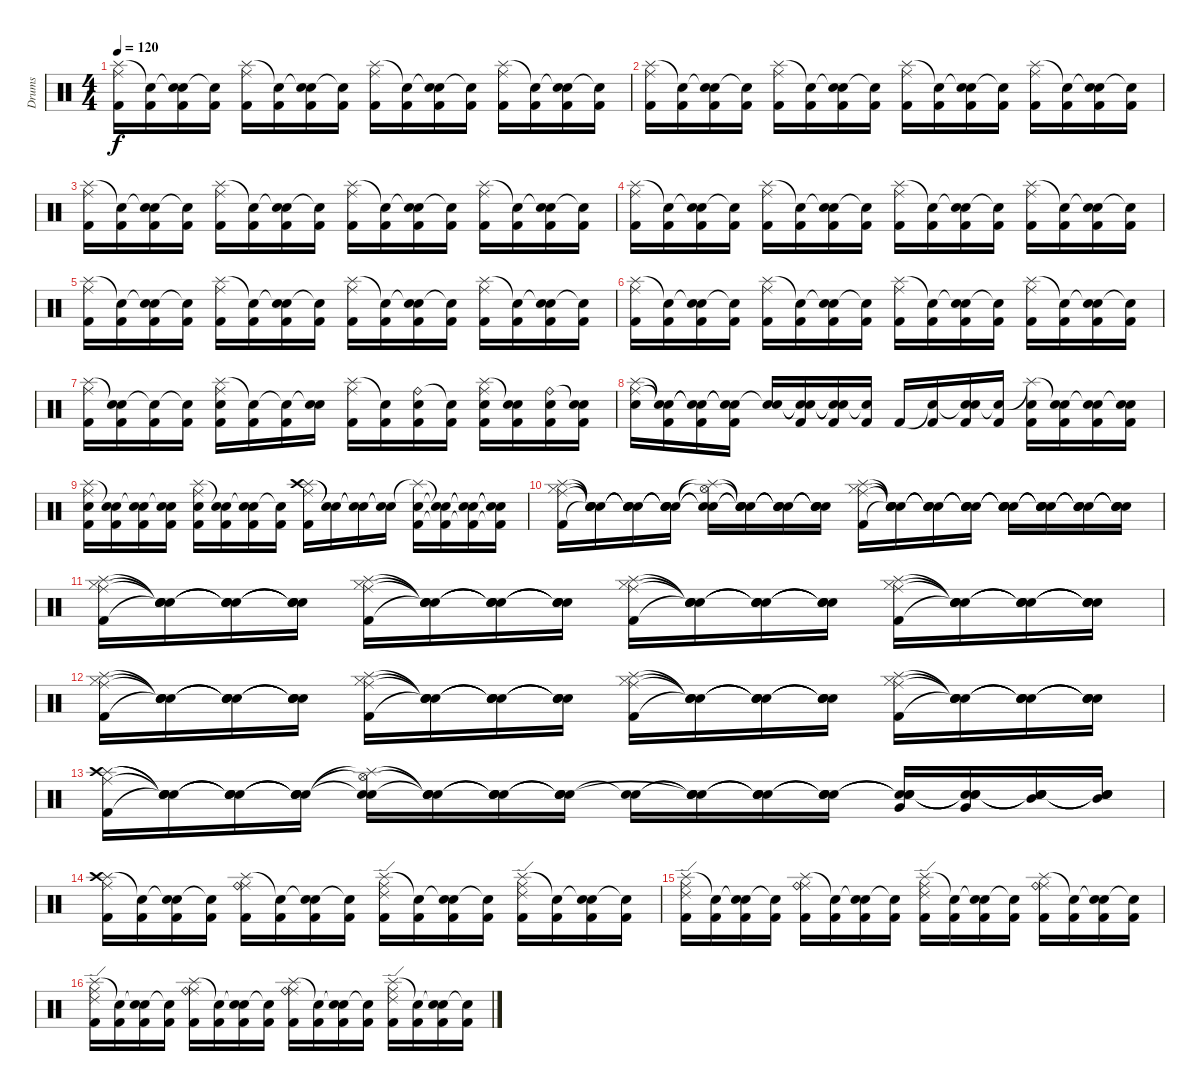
\track ("Drums" "Drums") {instrument percussion}
\staff {score}
\articulation defaults
\ts (4 4)
\tempo 120
\clef neutral
\ks c
("Splash (hit)" "Ride (middle)" "Kick (hit) 2").16{dy f} ("Snare (hit)"{t} "Kick (hit) 2").16 ("Snare (hit)"{t} "Electric Snare (hit)" "Kick (hit) 2").16 ("Snare (hit)"{t} "Kick (hit) 2").16 ("Splash (hit)" "Ride (middle)" "Kick (hit) 2").16 ("Snare (hit)"{t} "Kick (hit) 2").16 ("Snare (hit)"{t} "Electric Snare (hit)" "Kick (hit) 2").16 ("Snare (hit)"{t} "Kick (hit) 2").16 ("Splash (hit)" "Ride (middle)" "Kick (hit) 2").16 ("Snare (hit)"{t} "Kick (hit) 2").16 ("Snare (hit)"{t} "Electric Snare (hit)" "Kick (hit) 2").16 ("Snare (hit)"{t} "Kick (hit) 2").16 ("Splash (hit)" "Ride (middle)" "Kick (hit) 2").16 ("Snare (hit)"{t} "Kick (hit) 2").16 ("Snare (hit)"{t} "Electric Snare (hit)" "Kick (hit) 2").16 ("Snare (hit)"{t} "Kick (hit) 2").16 |
("Splash (hit)" "Ride (middle)" "Kick (hit) 2").16 ("Snare (hit)"{t} "Kick (hit) 2").16 ("Snare (hit)"{t} "Electric Snare (hit)" "Kick (hit) 2").16 ("Snare (hit)"{t} "Kick (hit) 2").16 ("Splash (hit)" "Ride (middle)" "Kick (hit) 2").16 ("Snare (hit)"{t} "Kick (hit) 2").16 ("Snare (hit)"{t} "Electric Snare (hit)" "Kick (hit) 2").16 ("Snare (hit)"{t} "Kick (hit) 2").16 ("Splash (hit)" "Ride (middle)" "Kick (hit) 2").16 ("Snare (hit)"{t} "Kick (hit) 2").16 ("Snare (hit)"{t} "Electric Snare (hit)" "Kick (hit) 2").16 ("Snare (hit)"{t} "Kick (hit) 2").16 ("Splash (hit)" "Ride (middle)" "Kick (hit) 2").16 ("Snare (hit)"{t} "Kick (hit) 2").16 ("Snare (hit)"{t} "Electric Snare (hit)" "Kick (hit) 2").16 ("Snare (hit)"{t} "Kick (hit) 2").16 |
("Splash (hit)" "Ride (middle)" "Kick (hit) 2").16 ("Snare (hit)"{t} "Kick (hit) 2").16 ("Snare (hit)"{t} "Electric Snare (hit)" "Kick (hit) 2").16 ("Snare (hit)"{t} "Kick (hit) 2").16 ("Splash (hit)" "Ride (middle)" "Kick (hit) 2").16 ("Snare (hit)"{t} "Kick (hit) 2").16 ("Snare (hit)"{t} "Electric Snare (hit)" "Kick (hit) 2").16 ("Snare (hit)"{t} "Kick (hit) 2").16 ("Splash (hit)" "Ride (middle)" "Kick (hit) 2").16 ("Snare (hit)"{t} "Kick (hit) 2").16 ("Snare (hit)"{t} "Electric Snare (hit)" "Kick (hit) 2").16 ("Snare (hit)"{t} "Kick (hit) 2").16 ("Splash (hit)" "Ride (middle)" "Kick (hit) 2").16 ("Snare (hit)"{t} "Kick (hit) 2").16 ("Snare (hit)"{t} "Electric Snare (hit)" "Kick (hit) 2").16 ("Snare (hit)"{t} "Kick (hit) 2").16 |
("Splash (hit)" "Ride (middle)" "Kick (hit) 2").16 ("Snare (hit)"{t} "Kick (hit) 2").16 ("Snare (hit)"{t} "Electric Snare (hit)" "Kick (hit) 2").16 ("Snare (hit)"{t} "Kick (hit) 2").16 ("Splash (hit)" "Ride (middle)" "Kick (hit) 2").16 ("Snare (hit)"{t} "Kick (hit) 2").16 ("Snare (hit)"{t} "Electric Snare (hit)" "Kick (hit) 2").16 ("Snare (hit)"{t} "Kick (hit) 2").16 ("Splash (hit)" "Ride (middle)" "Kick (hit) 2").16 ("Snare (hit)"{t} "Kick (hit) 2").16 ("Snare (hit)"{t} "Electric Snare (hit)" "Kick (hit) 2").16 ("Snare (hit)"{t} "Kick (hit) 2").16 ("Splash (hit)" "Ride (middle)" "Kick (hit) 2").16 ("Snare (hit)"{t} "Kick (hit) 2").16 ("Snare (hit)"{t} "Electric Snare (hit)" "Kick (hit) 2").16 ("Snare (hit)"{t} "Kick (hit) 2").16 |
("Splash (hit)" "Ride (middle)" "Kick (hit) 2").16 ("Snare (hit)"{t} "Kick (hit) 2").16 ("Snare (hit)"{t} "Electric Snare (hit)" "Kick (hit) 2").16 ("Snare (hit)"{t} "Kick (hit) 2").16 ("Splash (hit)" "Ride (middle)" "Kick (hit) 2").16 ("Snare (hit)"{t} "Kick (hit) 2").16 ("Snare (hit)"{t} "Electric Snare (hit)" "Kick (hit) 2").16 ("Snare (hit)"{t} "Kick (hit) 2").16 ("Splash (hit)" "Ride (middle)" "Kick (hit) 2").16 ("Snare (hit)"{t} "Kick (hit) 2").16 ("Snare (hit)"{t} "Electric Snare (hit)" "Kick (hit) 2").16 ("Snare (hit)"{t} "Kick (hit) 2").16 ("Splash (hit)" "Ride (middle)" "Kick (hit) 2").16 ("Snare (hit)"{t} "Kick (hit) 2").16 ("Snare (hit)"{t} "Electric Snare (hit)" "Kick (hit) 2").16 ("Snare (hit)"{t} "Kick (hit) 2").16 |
("Splash (hit)" "Ride (middle)" "Kick (hit) 2").16 ("Snare (hit)"{t} "Kick (hit) 2").16 ("Snare (hit)"{t} "Electric Snare (hit)" "Kick (hit) 2").16 ("Snare (hit)"{t} "Kick (hit) 2").16 ("Splash (hit)" "Ride (middle)" "Kick (hit) 2").16 ("Snare (hit)"{t} "Kick (hit) 2").16 ("Snare (hit)"{t} "Electric Snare (hit)" "Kick (hit) 2").16 ("Snare (hit)"{t} "Kick (hit) 2").16 ("Splash (hit)" "Ride (middle)" "Kick (hit) 2").16 ("Snare (hit)"{t} "Kick (hit) 2").16 ("Snare (hit)"{t} "Electric Snare (hit)" "Kick (hit) 2").16 ("Snare (hit)"{t} "Kick (hit) 2").16 ("Splash (hit)" "Ride (middle)" "Kick (hit) 2").16 ("Snare (hit)"{t} "Kick (hit) 2").16 ("Snare (hit)"{t} "Electric Snare (hit)" "Kick (hit) 2").16 ("Snare (hit)"{t} "Kick (hit) 2").16 |
("Splash (hit)" "Ride (middle)" "Kick (hit) 2").16 ("Snare (hit)"{t} "Electric Snare (hit)" "Kick (hit) 2").16 ("Snare (hit)"{t} "Kick (hit) 2").16 ("Snare (hit)"{t} "Kick (hit) 2").16 ("Splash (hit)" "Electric Snare (hit)" "Kick (hit) 2" "Ride (middle)").16 ("Snare (hit)"{t} "Kick (hit) 2").16 ("Snare (hit)"{t} "Kick (hit) 2").16 ("Snare (hit)"{t} "Electric Snare (hit)").16 ("Splash (hit)" "Ride (middle)" "Kick (hit) 2").16 ("Snare (hit)"{t} "Kick (hit) 2").16 ("Ride (bell)" "Electric Snare (hit)" "Kick (hit) 2").16 ("Snare (hit)"{t} "Kick (hit) 2").16 ("Splash (hit)" "Electric Snare (hit)" "Kick (hit) 2" "Ride (middle)").16 ("Snare (hit)"{t} "Electric Snare (hit)" "Kick (hit) 2").16 ("Ride (bell)" "Electric Snare (hit)" "Kick (hit) 2").16 ("Snare (hit)"{t} "Electric Snare (hit)" "Kick (hit) 2").16 |
("Splash (hit)" "Ride (middle)" "Electric Snare (hit)").16 ("Snare (hit)"{t} "Snare (hit)"{t} "Kick (hit) 2").16 ("Snare (hit)"{t} "Snare (hit)"{t} "Kick (hit) 2").16 ("Snare (hit)"{t} "Snare (hit)"{t} "Kick (hit) 2").16 ("Snare (hit)"{t} "Electric Snare (hit)").16 ("Snare (hit)"{t} "Snare (hit)"{t} "Kick (hit) 2").16 ("Snare (hit)"{t} "Snare (hit)"{t} "Kick (hit) 2").16 ("Snare (hit)"{t} "Kick (hit) 2").16 "Kick (hit) 2".16 ("Snare (hit)"{t} "Kick (hit) 2").16 ("Snare (hit)"{t} "Electric Snare (hit)" "Kick (hit) 2").16 ("Snare (hit)"{t} "Kick (hit) 2").16 ("Splash (hit)"{t} "Electric Snare (hit)" "Kick (hit) 2").16 ("Snare (hit)"{t} "Electric Snare (hit)" "Kick (hit) 2").16 ("Snare (hit)"{t} "Electric Snare (hit)" "Kick (hit) 2").16 ("Snare (hit)"{t} "Electric Snare (hit)" "Kick (hit) 2").16 |
("Splash (hit)" "Snare (hit) 2" "Kick (hit) 2" "Ride (middle)").16 ("Snare (hit)"{t} "Snare (hit) 2" "Kick (hit) 2").16 ("Snare (hit)"{t} "Electric Snare (hit)" "Kick (hit) 2").16 ("Snare (hit)"{t} "Snare (hit) 2" "Kick (hit) 2").16 ("Splash (hit)" "Snare (hit) 2" "Kick (hit) 2" "Ride (middle)").16 ("Snare (hit)"{t} "Snare (hit) 2" "Kick (hit) 2").16 ("Snare (hit)"{t} "Snare (hit) 2" "Kick (hit) 2").16 ("Snare (hit)"{t} "Kick (hit) 2").16 ("Splash (hit)" "Crash high (hit)" "Kick (hit) 2" "Ride (middle)").16 ("Snare (hit)"{t} "Snare (hit)"{t}).16 ("Snare (hit)"{t} "Electric Snare (hit)"{t}).16 ("Snare (hit)"{t} "Snare (hit)"{t}).16 ("Splash (hit)"{t} "Electric Snare (hit)" "Kick (hit) 2").16 ("Snare (hit)"{t} "Snare (hit)"{t} "Kick (hit) 2"{t}).16 ("Snare (hit)"{t} "Electric Snare (hit)"{t} "Kick (hit) 2"{t}).16 ("Snare (hit)"{t} "Snare (hit)"{t} "Kick (hit) 2"{t}).16 |
("Ride (middle)" "Splash (hit)" "Hi-Hat (closed)" "Kick (hit) 2").16 ("Snare (hit)"{t} "Snare (hit)"{t} "Snare (hit)"{t} "Snare (hit)"{t}).16 ("Snare (hit)"{t} "Snare (hit)"{t} "Snare (hit)"{t} "Snare (hit)"{t}).16 ("Snare (hit)"{t} "Snare (hit)"{t} "Snare (hit)"{t} "Snare (hit)"{t}).16 ("Snare (hit)"{t} "Splash (hit)"{t} "Hi-Hat (open)"{t} "Snare (hit)"{t}).16 ("Snare (hit)"{t} "Snare (hit)"{t} "Snare (hit)"{t} "Snare (hit)"{t}).16 ("Snare (hit)"{t} "Snare (hit)"{t} "Snare (hit)"{t} "Snare (hit)"{t}).16 ("Snare (hit)"{t} "Snare (hit)"{t} "Snare (hit)"{t} "Snare (hit)"{t}).16 ("Ride (middle)" "Splash (hit)" "Hi-Hat (closed)" "Kick (hit) 2").16 ("Snare (hit)"{t} "Snare (hit)"{t} "Snare (hit)"{t} "Snare (hit)"{t}).16 ("Snare (hit)"{t} "Snare (hit)"{t} "Snare (hit)"{t} "Snare (hit)"{t}).16 ("Snare (hit)"{t} "Snare (hit)"{t} "Snare (hit)"{t} "Snare (hit)"{t}).16 ("Snare (hit)"{t} "Snare (hit)"{t} "Snare (hit)"{t} "Snare (hit)"{t}).16 ("Snare (hit)"{t} "Snare (hit)"{t} "Snare (hit)"{t} "Snare (hit)"{t}).16 ("Snare (hit)"{t} "Snare (hit)"{t} "Snare (hit)"{t} "Snare (hit)"{t}).16 ("Snare (hit)"{t} "Snare (hit)"{t} "Snare (hit)"{t} "Snare (hit)"{t}).16 |
("Ride (middle)" "Splash (hit)" "Hi-Hat (closed)" "Kick (hit) 2").16 ("Snare (hit)"{t} "Snare (hit)"{t} "Snare (hit)"{t} "Snare (hit)"{t}).16 ("Snare (hit)"{t} "Snare (hit)"{t} "Snare (hit)"{t} "Snare (hit)"{t}).16 ("Snare (hit)"{t} "Snare (hit)"{t} "Snare (hit)"{t} "Snare (hit)"{t}).16 ("Ride (middle)" "Splash (hit)" "Hi-Hat (closed)" "Kick (hit) 2").16 ("Snare (hit)"{t} "Snare (hit)"{t} "Snare (hit)"{t} "Snare (hit)"{t}).16 ("Snare (hit)"{t} "Snare (hit)"{t} "Snare (hit)"{t} "Snare (hit)"{t}).16 ("Snare (hit)"{t} "Snare (hit)"{t} "Snare (hit)"{t} "Snare (hit)"{t}).16 ("Ride (middle)" "Splash (hit)" "Hi-Hat (closed)" "Kick (hit) 2").16 ("Snare (hit)"{t} "Snare (hit)"{t} "Snare (hit)"{t} "Snare (hit)"{t}).16 ("Snare (hit)"{t} "Snare (hit)"{t} "Snare (hit)"{t} "Snare (hit)"{t}).16 ("Snare (hit)"{t} "Snare (hit)"{t} "Snare (hit)"{t} "Snare (hit)"{t}).16 ("Ride (middle)" "Splash (hit)" "Hi-Hat (closed)" "Kick (hit) 2").16 ("Snare (hit)"{t} "Snare (hit)"{t} "Snare (hit)"{t} "Snare (hit)"{t}).16 ("Snare (hit)"{t} "Snare (hit)"{t} "Snare (hit)"{t} "Snare (hit)"{t}).16 ("Snare (hit)"{t} "Snare (hit)"{t} "Snare (hit)"{t} "Snare (hit)"{t}).16 |
("Ride (middle)" "Splash (hit)" "Hi-Hat (closed)" "Kick (hit) 2").16 ("Snare (hit)"{t} "Snare (hit)"{t} "Snare (hit)"{t} "Snare (hit)"{t}).16 ("Snare (hit)"{t} "Snare (hit)"{t} "Snare (hit)"{t} "Snare (hit)"{t}).16 ("Snare (hit)"{t} "Snare (hit)"{t} "Snare (hit)"{t} "Snare (hit)"{t}).16 ("Ride (middle)" "Splash (hit)" "Hi-Hat (closed)" "Kick (hit) 2").16 ("Snare (hit)"{t} "Snare (hit)"{t} "Snare (hit)"{t} "Snare (hit)"{t}).16 ("Snare (hit)"{t} "Snare (hit)"{t} "Snare (hit)"{t} "Snare (hit)"{t}).16 ("Snare (hit)"{t} "Snare (hit)"{t} "Snare (hit)"{t} "Snare (hit)"{t}).16 ("Ride (middle)" "Splash (hit)" "Hi-Hat (closed)" "Kick (hit) 2").16 ("Snare (hit)"{t} "Snare (hit)"{t} "Snare (hit)"{t} "Snare (hit)"{t}).16 ("Snare (hit)"{t} "Snare (hit)"{t} "Snare (hit)"{t} "Snare (hit)"{t}).16 ("Snare (hit)"{t} "Snare (hit)"{t} "Snare (hit)"{t} "Snare (hit)"{t}).16 ("Ride (middle)" "Splash (hit)" "Hi-Hat (closed)" "Kick (hit) 2").16 ("Snare (hit)"{t} "Snare (hit)"{t} "Snare (hit)"{t} "Snare (hit)"{t}).16 ("Snare (hit)"{t} "Snare (hit)"{t} "Snare (hit)"{t} "Snare (hit)"{t}).16 ("Snare (hit)"{t} "Snare (hit)"{t} "Snare (hit)"{t} "Snare (hit)"{t}).16 |
("Ride (middle)" "Splash (hit)" "Crash high (hit)" "Kick (hit) 2").16 ("Snare (hit)"{t} "Snare (hit)"{t} "Snare (hit)"{t} "Snare (hit)"{t}).16 ("Snare (hit)"{t} "Snare (hit)"{t} "Snare (hit)"{t} "Snare (hit)"{t}).16 ("Snare (hit)"{t} "Snare (hit)"{t} "Snare (hit)"{t} "Snare (hit)"{t}).16 ("Snare (hit)"{t} "Splash (hit)"{t} "Hi-Hat (open)"{t} "Snare (hit) 2").16 ("Snare (hit)"{t} "Snare (hit)"{t} "Snare (hit)"{t} "Snare (hit) 2").16 ("Snare (hit)"{t} "Snare (hit)"{t} "Snare (hit)"{t} "Snare (hit) 2").16 ("Snare (hit)"{t} "Snare (hit)"{t} "Snare (hit)"{t} "Snare (hit) 2").16 ("Snare (hit)"{t} "Electric Snare (hit)").16 ("Snare (hit)"{t} "Snare (hit)"{t} "Snare (hit)"{t} "Electric Snare (hit)").16 ("Snare (hit)"{t} "Snare (hit)"{t} "Snare (hit)"{t} "Electric Snare (hit)").16 ("Snare (hit)"{t} "Snare (hit)"{t} "Snare (hit)"{t} "Electric Snare (hit)").16 ("Snare (hit)"{t} "Snare (hit)"{t} "Snare (hit)"{t} "Very Low Tom (hit)").16 ("Snare (hit)"{t} "Snare (hit)"{t} "Snare (hit)"{t} "Very Low Tom (hit)").16 ("Snare (hit)"{t} "Snare (hit)"{t} "Snare (hit)"{t} "Mid Tom (hit)").16 ("Snare (hit)"{t} "Snare (hit)"{t} "Snare (hit)"{t} "Mid Tom (hit)").16 |
("Splash (hit)" "Ride (middle)" "Kick (hit) 2" "Crash high (hit)").16 ("Snare (hit)"{t} "Kick (hit) 2").16 ("Snare (hit)"{t} "Electric Snare (hit)" "Kick (hit) 2").16 ("Snare (hit)"{t} "Kick (hit) 2").16 ("Splash (hit)" "Ride (middle)" "Kick (hit) 2" "Ride (bell)").16 ("Snare (hit)"{t} "Kick (hit) 2").16 ("Snare (hit)"{t} "Electric Snare (hit)" "Kick (hit) 2").16 ("Snare (hit)"{t} "Kick (hit) 2").16 ("Splash (hit)" "Ride (middle)" "Kick (hit) 2" "Ride (edge) 2").16 ("Snare (hit)"{t} "Kick (hit) 2").16 ("Snare (hit)"{t} "Electric Snare (hit)" "Kick (hit) 2").16 ("Snare (hit)"{t} "Kick (hit) 2").16 ("Splash (hit)" "Ride (middle)" "Kick (hit) 2" "Ride (edge) 2").16 ("Snare (hit)"{t} "Kick (hit) 2").16 ("Snare (hit)"{t} "Electric Snare (hit)" "Kick (hit) 2").16 ("Snare (hit)"{t} "Kick (hit) 2").16 |
("Splash (hit)" "Ride (middle)" "Kick (hit) 2" "Ride (edge) 2").16 ("Snare (hit)"{t} "Kick (hit) 2").16 ("Snare (hit)"{t} "Electric Snare (hit)" "Kick (hit) 2").16 ("Snare (hit)"{t} "Kick (hit) 2").16 ("Splash (hit)" "Ride (middle)" "Kick (hit) 2" "Ride (bell)").16 ("Snare (hit)"{t} "Kick (hit) 2").16 ("Snare (hit)"{t} "Electric Snare (hit)" "Kick (hit) 2").16 ("Snare (hit)"{t} "Kick (hit) 2").16 ("Splash (hit)" "Ride (middle)" "Kick (hit) 2" "Ride (edge) 2").16 ("Snare (hit)"{t} "Kick (hit) 2").16 ("Snare (hit)"{t} "Electric Snare (hit)" "Kick (hit) 2").16 ("Snare (hit)"{t} "Kick (hit) 2").16 ("Splash (hit)" "Ride (middle)" "Kick (hit) 2" "Ride (bell)").16 ("Snare (hit)"{t} "Kick (hit) 2").16 ("Snare (hit)"{t} "Electric Snare (hit)" "Kick (hit) 2").16 ("Snare (hit)"{t} "Kick (hit) 2").16 |
("Splash (hit)" "Ride (middle)" "Kick (hit) 2" "Ride (edge) 2").16 ("Snare (hit)"{t} "Kick (hit) 2").16 ("Snare (hit)"{t} "Electric Snare (hit)" "Kick (hit) 2").16 ("Snare (hit)"{t} "Kick (hit) 2").16 ("Splash (hit)" "Ride (middle)" "Kick (hit) 2" "Ride (bell)").16 ("Snare (hit)"{t} "Kick (hit) 2").16 ("Snare (hit)"{t} "Electric Snare (hit)" "Kick (hit) 2").16 ("Snare (hit)"{t} "Kick (hit) 2").16 ("Splash (hit)" "Ride (middle)" "Kick (hit) 2" "Ride (bell)").16 ("Snare (hit)"{t} "Kick (hit) 2").16 ("Snare (hit)"{t} "Electric Snare (hit)" "Kick (hit) 2").16 ("Snare (hit)"{t} "Kick (hit) 2").16 ("Splash (hit)" "Ride (middle)" "Kick (hit) 2" "Ride (edge) 2").16 ("Snare (hit)"{t} "Kick (hit) 2").16 ("Snare (hit)"{t} "Electric Snare (hit)" "Kick (hit) 2").16 ("Snare (hit)"{t} "Kick (hit) 2").16
